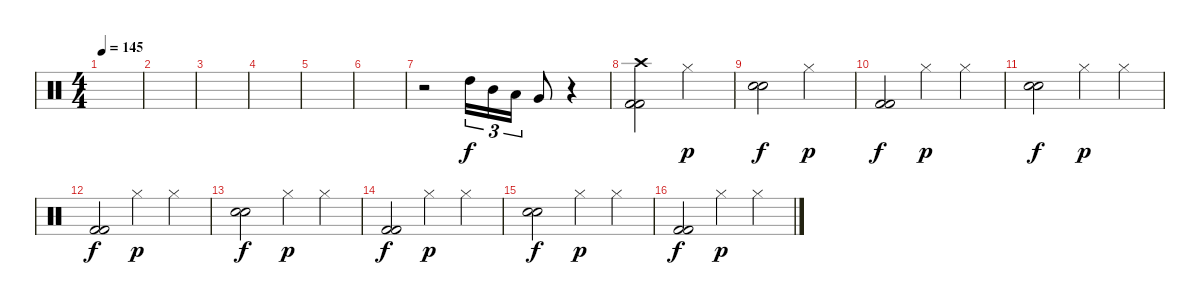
\track "" {instrument percussion}
\staff {score}
\articulation defaults
\ts (4 4)
\tempo 145
\clef neutral
\ks c
|
|
|
|
|
|
r.2 "High Tom (hit)".16{tu (3 2)} "Mid Tom (hit)".16{tu (3 2)} "Low Tom (hit)".16{tu (3 2)} "Very Low Tom (hit)".8 r.4 |
("Crash high (hit)" "Kick (hit) 2" "Kick (hit) 2").2 "Hi-Hat (closed)".2{dy p} |
("Snare (hit) 2" "Snare (hit) 2").2{dy f} "Hi-Hat (closed)".2{dy p} |
("Kick (hit) 2" "Kick (hit) 2").2{dy f} "Hi-Hat (closed)".4{dy p} "Hi-Hat (closed)".4 |
("Snare (hit) 2" "Snare (hit) 2").2{dy f} "Hi-Hat (closed)".4{dy p} "Hi-Hat (closed)".4 |
("Kick (hit) 2" "Kick (hit) 2").2{dy f} "Hi-Hat (closed)".4{dy p} "Hi-Hat (closed)".4 |
("Snare (hit) 2" "Snare (hit) 2").2{dy f} "Hi-Hat (closed)".4{dy p} "Hi-Hat (closed)".4 |
("Kick (hit) 2" "Kick (hit) 2").2{dy f} "Hi-Hat (closed)".4{dy p} "Hi-Hat (closed)".4 |
("Snare (hit) 2" "Snare (hit) 2").2{dy f} "Hi-Hat (closed)".4{dy p} "Hi-Hat (closed)".4 |
("Kick (hit) 2" "Kick (hit) 2").2{dy f} "Hi-Hat (closed)".4{dy p} "Hi-Hat (closed)".4
